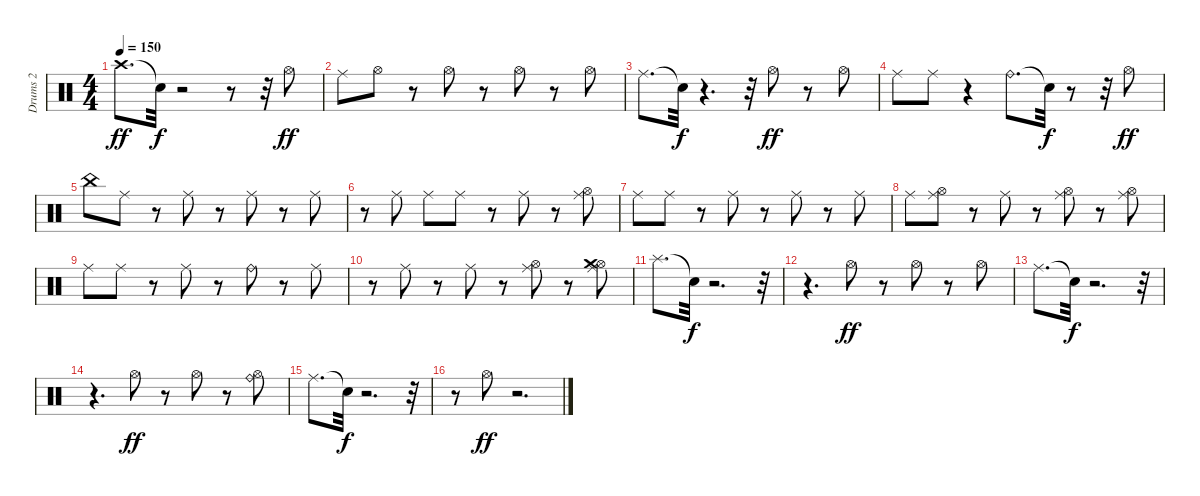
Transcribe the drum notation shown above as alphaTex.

\track ("Drums 2" "Drums 2") {instrument percussion}
\staff {score}
\articulation defaults
\ts (4 4)
\tempo 150
\clef neutral
\ks c "Crash high (hit)".8{d dy ff} "Snare (hit)"{t}.32{dy f}
r.2 r.8 r.32 "Hi-Hat (open)".8{dy ff} |
"Ride (middle)".8 "Hi-Hat (open)".8 r.8 "Hi-Hat (open)".8 r.8 "Hi-Hat (open)".8 r.8 "Hi-Hat (open)".8 |
"Ride (middle)".8{d} "Snare (hit)"{t}.32{dy f} r.4{d} r.32 "Hi-Hat (open)".8{dy ff} r.8 "Hi-Hat (open)".8 |
"Ride (middle)".8 "Ride (middle)".8 r.4 "Ride (bell)".8{d} "Snare (hit)"{t}.32{dy f} r.8 r.32 "Hi-Hat (open)".8{dy ff} |
"China (hit)".8 "Ride (middle)".8 r.8 "Ride (middle)".8 r.8 "Ride (middle)".8 r.8 "Ride (middle)".8 |
r.8 "Ride (middle)".8 "Ride (middle)".8 "Ride (middle)".8 r.8 "Ride (middle)".8 r.8 ("Hi-Hat (open)" "Ride (middle)").8 |
"Ride (middle)".8 "Ride (middle)".8 r.8 "Ride (middle)".8 r.8 "Ride (middle)".8 r.8 "Ride (middle)".8 |
"Ride (middle)".8 ("Hi-Hat (open)" "Ride (middle)").8 r.8 "Ride (middle)".8 r.8 ("Hi-Hat (open)" "Ride (middle)").8 r.8 ("Hi-Hat (open)" "Ride (middle)").8 |
"Ride (middle)".8 "Ride (middle)".8 r.8 "Ride (middle)".8 r.8 "Ride (bell)".8 r.8 "Ride (middle)".8 |
r.8 "Ride (middle)".8 r.8 "Ride (middle)".8 r.8 ("Hi-Hat (open)" "Ride (middle)").8 r.8 ("Hi-Hat (open)" "Ride (middle)" "Crash medium (hit)").8 |
"Splash (hit)".8{d} "Snare (hit)"{t}.32{dy f} r.2{d} r.32 |
r.4{d} "Hi-Hat (open)".8{dy ff} r.8 "Hi-Hat (open)".8 r.8 "Hi-Hat (open)".8 |
"Ride (middle)".8{d} "Snare (hit)"{t}.32{dy f} r.2{d} r.32 |
r.4{d} "Hi-Hat (open)".8{dy ff} r.8 "Hi-Hat (open)".8 r.8 ("Hi-Hat (open)" "Ride (bell)").8 |
"Ride (middle)".8{d} "Snare (hit)"{t}.32{dy f} r.2{d} r.32 |
r.8 "Hi-Hat (open)".8{dy ff} r.2{d}
